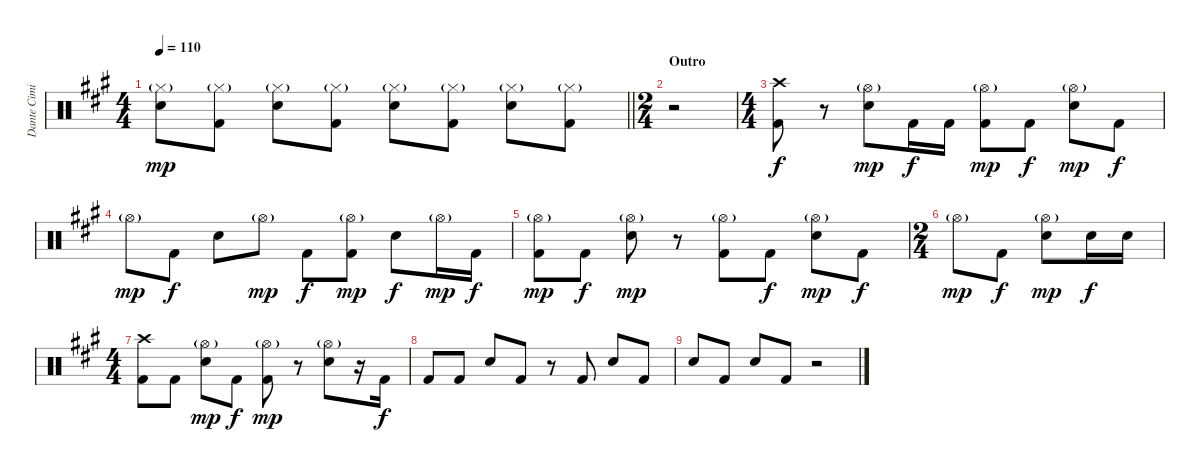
\track ("Dante Cimino" "Dante Cimi") {instrument percussion}
\staff {score}
\articulation defaults
\ts (4 4)
\tempo 110
\clef neutral
\barLineRight lightlight
\ks a
("Hi-Hat (closed)"{g} "Electric Snare (hit)").8{dy mp} ("Hi-Hat (closed)"{g} "Kick (hit) 2").8 ("Hi-Hat (closed)"{g} "Electric Snare (hit)").8 ("Hi-Hat (closed)"{g} "Kick (hit) 2").8 ("Hi-Hat (closed)"{g} "Electric Snare (hit)").8 ("Hi-Hat (closed)"{g} "Kick (hit) 2").8 ("Hi-Hat (closed)"{g} "Electric Snare (hit)").8 ("Hi-Hat (closed)"{g} "Kick (hit) 2").8 |
\ts (2 4)
\section ("" "Outro")
r.2 |
\ts (4 4)
("Crash high (hit)" "Kick (hit) 2").8{dy f} r.8 ("Hi-Hat (open)"{g} "Electric Snare (hit)").8{dy mp} "Kick (hit) 2".16{dy f} "Kick (hit) 2".16 ("Hi-Hat (open)"{g} "Kick (hit) 2").8{dy mp} "Kick (hit) 2".8{dy f} ("Hi-Hat (open)"{g} "Electric Snare (hit)").8{dy mp} "Kick (hit) 2".8{dy f} |
"Hi-Hat (open)"{g}.8{dy mp} "Kick (hit) 2".8{dy f} "Electric Snare (hit)".8 "Hi-Hat (open)"{g}.8{dy mp} "Kick (hit) 2".8{dy f} ("Hi-Hat (open)"{g} "Kick (hit) 2").8{dy mp} "Electric Snare (hit)".8{dy f} "Hi-Hat (open)"{g}.16{dy mp} "Kick (hit) 2".16{dy f} |
("Hi-Hat (open)"{g} "Kick (hit) 2").8{dy mp} "Kick (hit) 2".8{dy f} ("Hi-Hat (open)"{g} "Electric Snare (hit)").8{dy mp} r.8 ("Hi-Hat (open)"{g} "Kick (hit) 2").8 "Kick (hit) 2".8{dy f} ("Hi-Hat (open)"{g} "Electric Snare (hit)").8{dy mp} "Kick (hit) 2".8{dy f} |
\ts (2 4)
"Hi-Hat (open)"{g}.8{dy mp} "Kick (hit) 2".8{dy f} ("Hi-Hat (open)"{g} "Electric Snare (hit)").8{dy mp} "Electric Snare (hit)".16{dy f} "Electric Snare (hit)".16 |
\ts (4 4)
("Crash high (hit)" "Kick (hit) 2").8 "Kick (hit) 2".8 ("Hi-Hat (open)"{g} "Electric Snare (hit)").8{dy mp} "Kick (hit) 2".8{dy f} ("Hi-Hat (open)"{g} "Kick (hit) 2").8{dy mp} r.8 ("Hi-Hat (open)"{g} "Electric Snare (hit)").8 r.16 "Kick (hit) 2".16{dy f} |
"Kick (hit) 2".8 "Kick (hit) 2".8 "Electric Snare (hit)".8 "Kick (hit) 2".8 r.8 "Kick (hit) 2".8 "Electric Snare (hit)".8 "Kick (hit) 2".8 |
"Electric Snare (hit)".8 "Kick (hit) 2".8 "Electric Snare (hit)".8 "Kick (hit) 2".8 r.2
